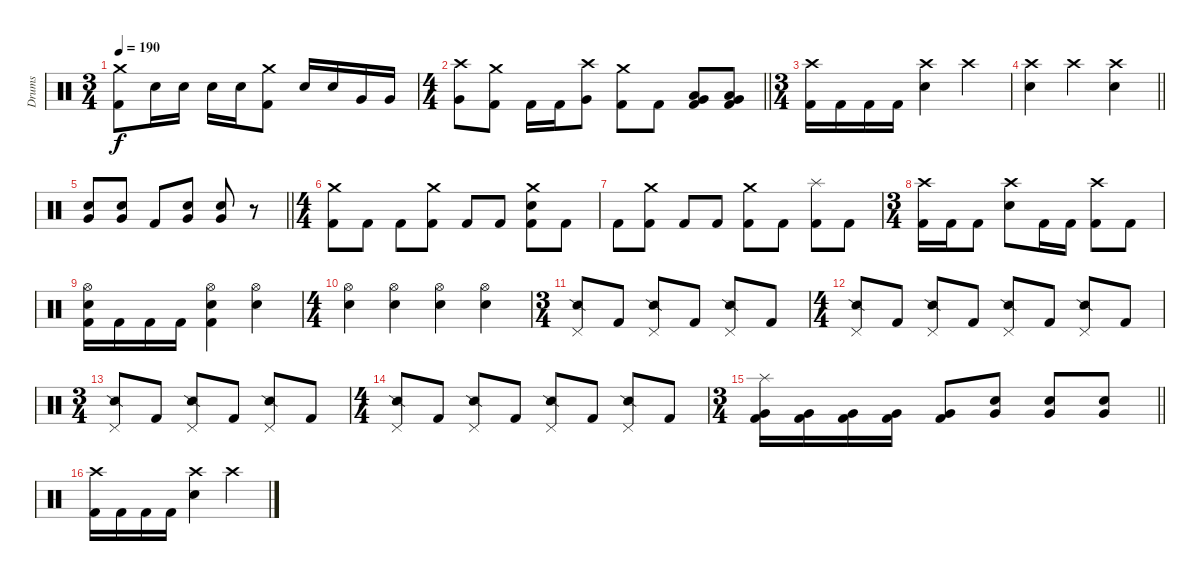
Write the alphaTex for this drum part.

\track ("Drums" "Drums") {instrument percussion}
\staff {score}
\articulation defaults
\ts (3 4)
\tempo 190
\clef neutral
\ks c
("Crash medium (hit)" "Kick (hit) 2").8{dy f} "Electric Snare (hit)".16 "Electric Snare (hit)".16 "Electric Snare (hit)".16 "Electric Snare (hit)".16 ("Crash medium (hit)" "Kick (hit) 2").8 "Electric Snare (hit)".16 "Electric Snare (hit)".16 "Very Low Tom (hit)".16 "Very Low Tom (hit)".16 |
\ts (4 4)
\barLineRight lightlight
("Crash high (hit)" "Very Low Tom (hit)").8 ("Crash medium (hit)" "Kick (hit) 2").8 "Kick (hit) 2".16 "Kick (hit) 2".16 ("Crash high (hit)" "Very Low Tom (hit)").8 ("Crash medium (hit)" "Kick (hit) 2").8 "Kick (hit) 2".8 ("Low Tom (hit)" "Very Low Tom (hit)" "Kick (hit) 2").8 ("Low Tom (hit)" "Very Low Tom (hit)" "Kick (hit) 2").8 |
\ts (3 4)
("Crash high (hit)" "Kick (hit) 2").16 "Kick (hit) 2".16 "Kick (hit) 2".16 "Kick (hit) 2".16 ("Crash high (hit)" "Electric Snare (hit)").4 "Crash high (hit)".4 |
\barLineRight lightlight
("Crash high (hit)" "Electric Snare (hit)").4 "Crash high (hit)".4 ("Crash high (hit)" "Electric Snare (hit)").4 |
\barLineRight lightlight
("Electric Snare (hit)" "Very Low Tom (hit)").8 ("Electric Snare (hit)" "Very Low Tom (hit)").8 "Kick (hit) 2".8 ("Electric Snare (hit)" "Very Low Tom (hit)").8 ("Electric Snare (hit)" "Very Low Tom (hit)").8 r.8 |
\ts (4 4)
("Crash medium (hit)" "Kick (hit) 2").8 "Kick (hit) 2".8 "Kick (hit) 2".8 ("Crash medium (hit)" "Kick (hit) 2").8 "Kick (hit) 2".8 "Kick (hit) 2".8 ("Crash medium (hit)" "Electric Snare (hit)" "Kick (hit) 2").8 "Kick (hit) 2".8 |
"Kick (hit) 2".8 ("Crash medium (hit)" "Kick (hit) 2").8 "Kick (hit) 2".8 "Kick (hit) 2".8 ("Crash medium (hit)" "Kick (hit) 2").8 "Kick (hit) 2".8 ("Splash (hit)" "Kick (hit) 2").8 "Kick (hit) 2".8 |
\ts (3 4)
("Crash high (hit)" "Kick (hit) 2").16 "Kick (hit) 2".16 "Kick (hit) 2".8 ("Crash high (hit)" "Electric Snare (hit)").8 "Kick (hit) 2".16 "Kick (hit) 2".16 ("Crash high (hit)" "Kick (hit) 2").8 "Kick (hit) 2".8 |
("Hi-Hat (open)" "Electric Snare (hit)" "Kick (hit) 2").16 "Kick (hit) 2".16 "Kick (hit) 2".16 "Kick (hit) 2".16 ("Hi-Hat (open)" "Electric Snare (hit)" "Kick (hit) 2").4 ("Hi-Hat (open)" "Electric Snare (hit)").4 |
\ts (4 4)
("Hi-Hat (open)" "Electric Snare (hit)").4 ("Hi-Hat (open)" "Electric Snare (hit)").4 ("Hi-Hat (open)" "Electric Snare (hit)").4 ("Hi-Hat (open)" "Electric Snare (hit)").4 |
\ts (3 4)
("Pedal Hi-Hat (hit)" "Snare (side stick) 2").8 "Kick (hit) 2".8 ("Pedal Hi-Hat (hit)" "Snare (side stick) 2").8 "Kick (hit) 2".8 ("Pedal Hi-Hat (hit)" "Snare (side stick) 2").8 "Kick (hit) 2".8 |
\ts (4 4)
("Pedal Hi-Hat (hit)" "Snare (side stick) 2").8 "Kick (hit) 2".8 ("Pedal Hi-Hat (hit)" "Snare (side stick) 2").8 "Kick (hit) 2".8 ("Pedal Hi-Hat (hit)" "Snare (side stick) 2").8 "Kick (hit) 2".8 ("Pedal Hi-Hat (hit)" "Snare (side stick) 2").8 "Kick (hit) 2".8 |
\ts (3 4)
("Pedal Hi-Hat (hit)" "Snare (side stick) 2").8 "Kick (hit) 2".8 ("Pedal Hi-Hat (hit)" "Snare (side stick) 2").8 "Kick (hit) 2".8 ("Pedal Hi-Hat (hit)" "Snare (side stick) 2").8 "Kick (hit) 2".8 |
\ts (4 4)
("Pedal Hi-Hat (hit)" "Snare (side stick) 2").8 "Kick (hit) 2".8 ("Pedal Hi-Hat (hit)" "Snare (side stick) 2").8 "Kick (hit) 2".8 ("Pedal Hi-Hat (hit)" "Snare (side stick) 2").8 "Kick (hit) 2".8 ("Pedal Hi-Hat (hit)" "Snare (side stick) 2").8 "Kick (hit) 2".8 |
\ts (3 4)
\barLineRight lightlight
("Splash (hit)" "Very Low Tom (hit)" "Kick (hit) 2").16 ("Very Low Tom (hit)" "Kick (hit) 2").16 ("Very Low Tom (hit)" "Kick (hit) 2").16 ("Very Low Tom (hit)" "Kick (hit) 2").16 ("Very Low Tom (hit)" "Kick (hit) 2").8 ("Electric Snare (hit)" "Very Low Tom (hit)").8 ("Electric Snare (hit)" "Very Low Tom (hit)").8 ("Electric Snare (hit)" "Very Low Tom (hit)").8 |
("Crash high (hit)" "Kick (hit) 2").16 "Kick (hit) 2".16 "Kick (hit) 2".16 "Kick (hit) 2".16 ("Crash high (hit)" "Electric Snare (hit)").4 "Crash high (hit)".4
